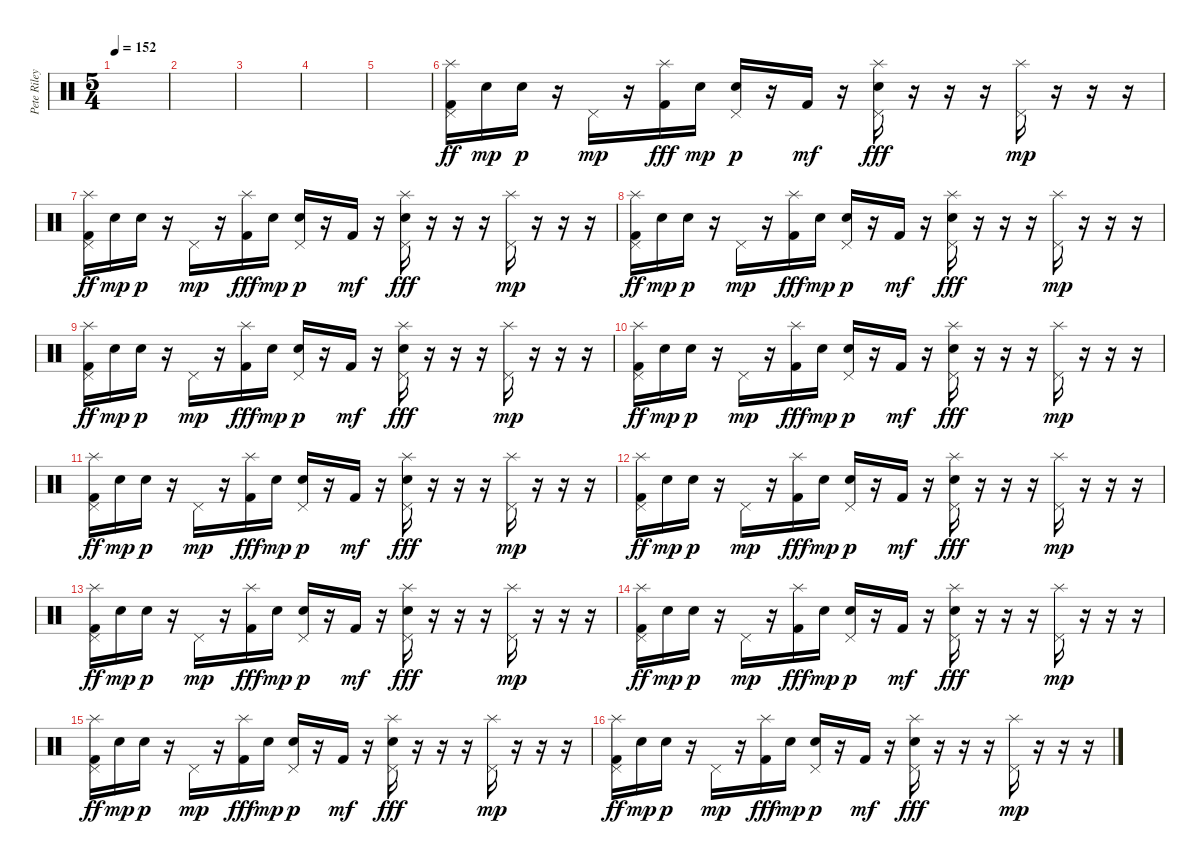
\track ("Pete Riley" "Pete Riley") {instrument percussion}
\staff {score}
\articulation defaults
\ts (5 4)
\tempo 152
\clef neutral
\ks c
|
|
|
|
|
("Splash (hit)" "Pedal Hi-Hat (hit)" "Kick (hit) 2").16{dy ff volume 14} "Electric Snare (hit)".16{dy mp} "Electric Snare (hit)".16{dy p} r.16 "Pedal Hi-Hat (hit)".16{dy mp} r.16 ("Splash (hit)" "Kick (hit) 2").16{dy fff} "Electric Snare (hit)".16{dy mp} ("Pedal Hi-Hat (hit)" "Electric Snare (hit)").16{dy p} r.16 "Kick (hit) 2".16{dy mf} r.16 ("Splash (hit)" "Pedal Hi-Hat (hit)" "Electric Snare (hit)").16{dy fff} r.16 r.16 r.16 ("Splash (hit)" "Pedal Hi-Hat (hit)").16{dy mp} r.16 r.16 r.16 |
("Splash (hit)" "Pedal Hi-Hat (hit)" "Kick (hit) 2").16{dy ff} "Electric Snare (hit)".16{dy mp} "Electric Snare (hit)".16{dy p} r.16 "Pedal Hi-Hat (hit)".16{dy mp} r.16 ("Splash (hit)" "Kick (hit) 2").16{dy fff} "Electric Snare (hit)".16{dy mp} ("Pedal Hi-Hat (hit)" "Electric Snare (hit)").16{dy p} r.16 "Kick (hit) 2".16{dy mf} r.16 ("Splash (hit)" "Pedal Hi-Hat (hit)" "Electric Snare (hit)").16{dy fff} r.16 r.16 r.16 ("Splash (hit)" "Pedal Hi-Hat (hit)").16{dy mp} r.16 r.16 r.16 |
("Splash (hit)" "Pedal Hi-Hat (hit)" "Kick (hit) 2").16{dy ff} "Electric Snare (hit)".16{dy mp} "Electric Snare (hit)".16{dy p} r.16 "Pedal Hi-Hat (hit)".16{dy mp} r.16 ("Splash (hit)" "Kick (hit) 2").16{dy fff} "Electric Snare (hit)".16{dy mp} ("Pedal Hi-Hat (hit)" "Electric Snare (hit)").16{dy p} r.16 "Kick (hit) 2".16{dy mf} r.16 ("Splash (hit)" "Pedal Hi-Hat (hit)" "Electric Snare (hit)").16{dy fff} r.16 r.16 r.16 ("Splash (hit)" "Pedal Hi-Hat (hit)").16{dy mp} r.16 r.16 r.16 |
("Splash (hit)" "Pedal Hi-Hat (hit)" "Kick (hit) 2").16{dy ff} "Electric Snare (hit)".16{dy mp} "Electric Snare (hit)".16{dy p} r.16 "Pedal Hi-Hat (hit)".16{dy mp} r.16 ("Splash (hit)" "Kick (hit) 2").16{dy fff} "Electric Snare (hit)".16{dy mp} ("Pedal Hi-Hat (hit)" "Electric Snare (hit)").16{dy p} r.16 "Kick (hit) 2".16{dy mf} r.16 ("Splash (hit)" "Pedal Hi-Hat (hit)" "Electric Snare (hit)").16{dy fff} r.16 r.16 r.16 ("Splash (hit)" "Pedal Hi-Hat (hit)").16{dy mp} r.16 r.16 r.16 |
("Splash (hit)" "Pedal Hi-Hat (hit)" "Kick (hit) 2").16{dy ff} "Electric Snare (hit)".16{dy mp} "Electric Snare (hit)".16{dy p} r.16 "Pedal Hi-Hat (hit)".16{dy mp} r.16 ("Splash (hit)" "Kick (hit) 2").16{dy fff} "Electric Snare (hit)".16{dy mp} ("Pedal Hi-Hat (hit)" "Electric Snare (hit)").16{dy p} r.16 "Kick (hit) 2".16{dy mf} r.16 ("Splash (hit)" "Pedal Hi-Hat (hit)" "Electric Snare (hit)").16{dy fff} r.16 r.16 r.16 ("Splash (hit)" "Pedal Hi-Hat (hit)").16{dy mp} r.16 r.16 r.16 |
("Splash (hit)" "Pedal Hi-Hat (hit)" "Kick (hit) 2").16{dy ff} "Electric Snare (hit)".16{dy mp} "Electric Snare (hit)".16{dy p} r.16 "Pedal Hi-Hat (hit)".16{dy mp} r.16 ("Splash (hit)" "Kick (hit) 2").16{dy fff} "Electric Snare (hit)".16{dy mp} ("Pedal Hi-Hat (hit)" "Electric Snare (hit)").16{dy p} r.16 "Kick (hit) 2".16{dy mf} r.16 ("Splash (hit)" "Pedal Hi-Hat (hit)" "Electric Snare (hit)").16{dy fff} r.16 r.16 r.16 ("Splash (hit)" "Pedal Hi-Hat (hit)").16{dy mp} r.16 r.16 r.16 |
("Splash (hit)" "Pedal Hi-Hat (hit)" "Kick (hit) 2").16{dy ff} "Electric Snare (hit)".16{dy mp} "Electric Snare (hit)".16{dy p} r.16 "Pedal Hi-Hat (hit)".16{dy mp} r.16 ("Splash (hit)" "Kick (hit) 2").16{dy fff} "Electric Snare (hit)".16{dy mp} ("Pedal Hi-Hat (hit)" "Electric Snare (hit)").16{dy p} r.16 "Kick (hit) 2".16{dy mf} r.16 ("Splash (hit)" "Pedal Hi-Hat (hit)" "Electric Snare (hit)").16{dy fff} r.16 r.16 r.16 ("Splash (hit)" "Pedal Hi-Hat (hit)").16{dy mp} r.16 r.16 r.16 |
("Splash (hit)" "Pedal Hi-Hat (hit)" "Kick (hit) 2").16{dy ff} "Electric Snare (hit)".16{dy mp} "Electric Snare (hit)".16{dy p} r.16 "Pedal Hi-Hat (hit)".16{dy mp} r.16 ("Splash (hit)" "Kick (hit) 2").16{dy fff} "Electric Snare (hit)".16{dy mp} ("Pedal Hi-Hat (hit)" "Electric Snare (hit)").16{dy p} r.16 "Kick (hit) 2".16{dy mf} r.16 ("Splash (hit)" "Pedal Hi-Hat (hit)" "Electric Snare (hit)").16{dy fff} r.16 r.16 r.16 ("Splash (hit)" "Pedal Hi-Hat (hit)").16{dy mp} r.16 r.16 r.16 |
("Splash (hit)" "Pedal Hi-Hat (hit)" "Kick (hit) 2").16{dy ff} "Electric Snare (hit)".16{dy mp} "Electric Snare (hit)".16{dy p} r.16 "Pedal Hi-Hat (hit)".16{dy mp} r.16 ("Splash (hit)" "Kick (hit) 2").16{dy fff} "Electric Snare (hit)".16{dy mp} ("Pedal Hi-Hat (hit)" "Electric Snare (hit)").16{dy p} r.16 "Kick (hit) 2".16{dy mf} r.16 ("Splash (hit)" "Pedal Hi-Hat (hit)" "Electric Snare (hit)").16{dy fff} r.16 r.16 r.16 ("Splash (hit)" "Pedal Hi-Hat (hit)").16{dy mp} r.16 r.16 r.16 |
("Splash (hit)" "Pedal Hi-Hat (hit)" "Kick (hit) 2").16{dy ff} "Electric Snare (hit)".16{dy mp} "Electric Snare (hit)".16{dy p} r.16 "Pedal Hi-Hat (hit)".16{dy mp} r.16 ("Splash (hit)" "Kick (hit) 2").16{dy fff} "Electric Snare (hit)".16{dy mp} ("Pedal Hi-Hat (hit)" "Electric Snare (hit)").16{dy p} r.16 "Kick (hit) 2".16{dy mf} r.16 ("Splash (hit)" "Pedal Hi-Hat (hit)" "Electric Snare (hit)").16{dy fff} r.16 r.16 r.16 ("Splash (hit)" "Pedal Hi-Hat (hit)").16{dy mp} r.16 r.16 r.16 |
("Splash (hit)" "Pedal Hi-Hat (hit)" "Kick (hit) 2").16{dy ff} "Electric Snare (hit)".16{dy mp} "Electric Snare (hit)".16{dy p} r.16 "Pedal Hi-Hat (hit)".16{dy mp} r.16 ("Splash (hit)" "Kick (hit) 2").16{dy fff} "Electric Snare (hit)".16{dy mp} ("Pedal Hi-Hat (hit)" "Electric Snare (hit)").16{dy p} r.16 "Kick (hit) 2".16{dy mf} r.16 ("Splash (hit)" "Pedal Hi-Hat (hit)" "Electric Snare (hit)").16{dy fff} r.16 r.16 r.16 ("Splash (hit)" "Pedal Hi-Hat (hit)").16{dy mp} r.16 r.16 r.16
